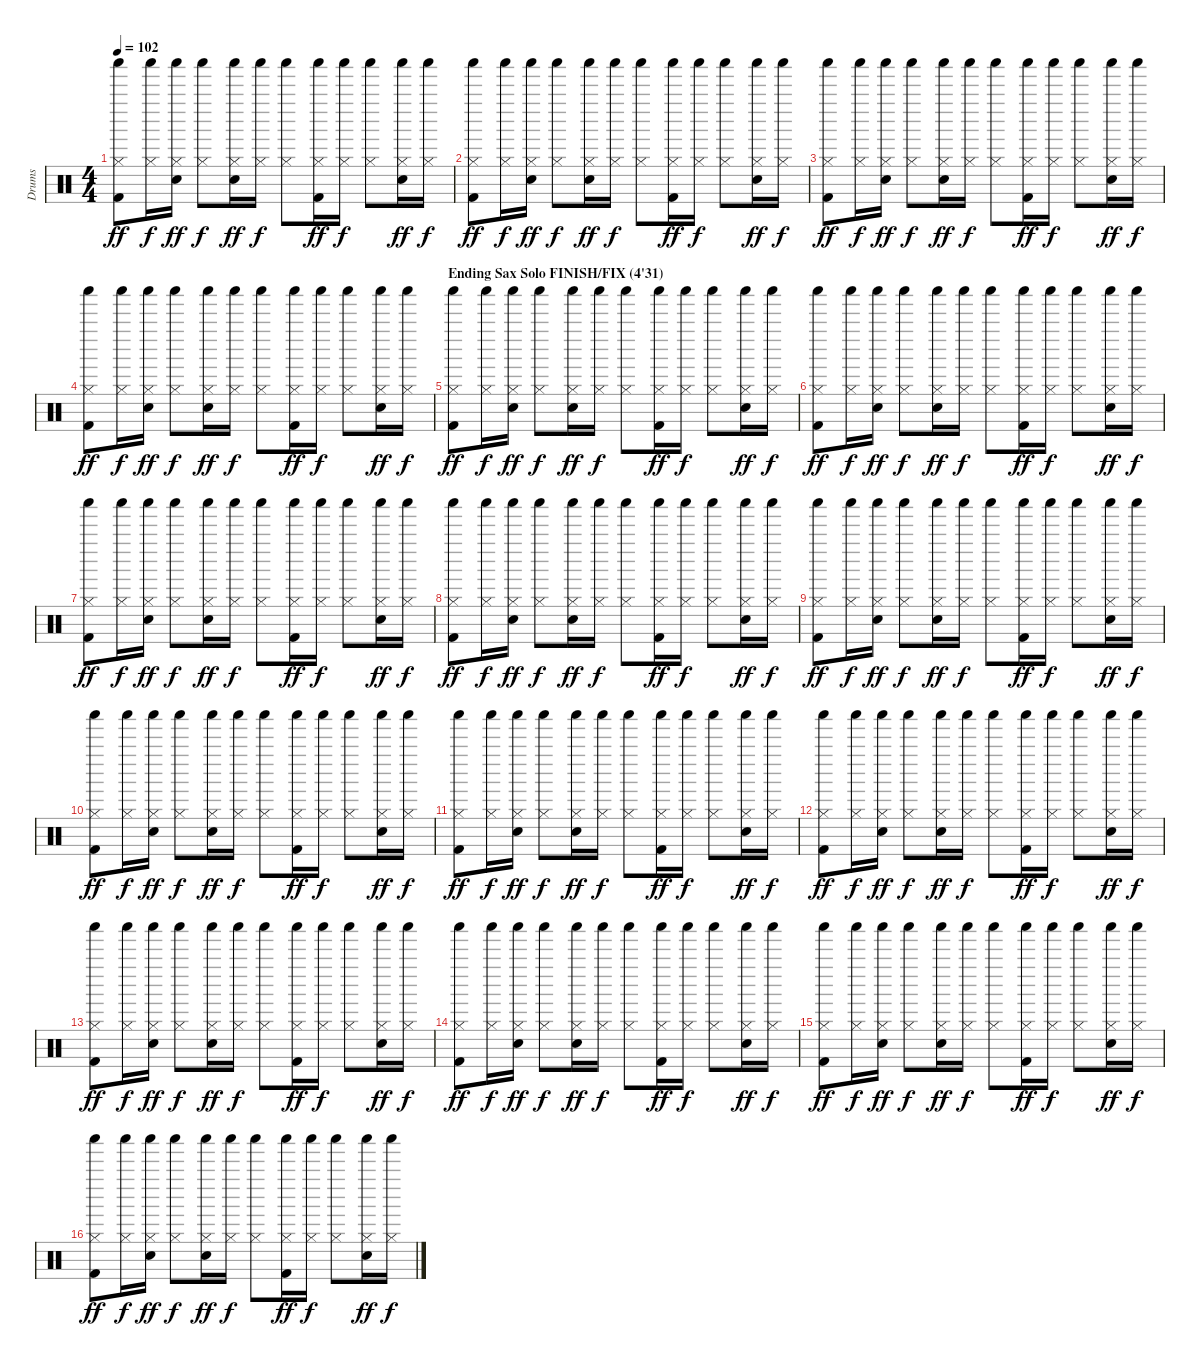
\track ("Drums" "Drums") {instrument percussion}
\staff {score}
\articulation defaults
\ts (4 4)
\tempo 102
\clef neutral
\ks c
("Hi-Hat (closed)" "Shaker (hit)" "Kick (hit) 2").8{dy ff} ("Hi-Hat (closed)" "Shaker (hit)").16{dy f} ("Hi-Hat (closed)" "Shaker (hit)" "Snare (hit) 2").16{dy ff} ("Hi-Hat (closed)" "Shaker (hit)").8{dy f} ("Hi-Hat (closed)" "Shaker (hit)" "Snare (hit) 2").16{dy ff} ("Hi-Hat (closed)" "Shaker (hit)").16{dy f} ("Hi-Hat (closed)" "Shaker (hit)").8 ("Hi-Hat (closed)" "Shaker (hit)" "Kick (hit) 2").16{dy ff} ("Hi-Hat (closed)" "Shaker (hit)").16{dy f} ("Hi-Hat (closed)" "Shaker (hit)").8 ("Hi-Hat (closed)" "Shaker (hit)" "Snare (hit) 2").16{dy ff} ("Hi-Hat (closed)" "Shaker (hit)").16{dy f} |
("Hi-Hat (closed)" "Shaker (hit)" "Kick (hit) 2").8{dy ff} ("Hi-Hat (closed)" "Shaker (hit)").16{dy f} ("Hi-Hat (closed)" "Shaker (hit)" "Snare (hit) 2").16{dy ff} ("Hi-Hat (closed)" "Shaker (hit)").8{dy f} ("Hi-Hat (closed)" "Shaker (hit)" "Snare (hit) 2").16{dy ff} ("Hi-Hat (closed)" "Shaker (hit)").16{dy f} ("Hi-Hat (closed)" "Shaker (hit)").8 ("Hi-Hat (closed)" "Shaker (hit)" "Kick (hit) 2").16{dy ff} ("Hi-Hat (closed)" "Shaker (hit)").16{dy f} ("Hi-Hat (closed)" "Shaker (hit)").8 ("Hi-Hat (closed)" "Shaker (hit)" "Snare (hit) 2").16{dy ff} ("Hi-Hat (closed)" "Shaker (hit)").16{dy f} |
("Hi-Hat (closed)" "Shaker (hit)" "Kick (hit) 2").8{dy ff} ("Hi-Hat (closed)" "Shaker (hit)").16{dy f} ("Hi-Hat (closed)" "Shaker (hit)" "Snare (hit) 2").16{dy ff} ("Hi-Hat (closed)" "Shaker (hit)").8{dy f} ("Hi-Hat (closed)" "Shaker (hit)" "Snare (hit) 2").16{dy ff} ("Hi-Hat (closed)" "Shaker (hit)").16{dy f} ("Hi-Hat (closed)" "Shaker (hit)").8 ("Hi-Hat (closed)" "Shaker (hit)" "Kick (hit) 2").16{dy ff} ("Hi-Hat (closed)" "Shaker (hit)").16{dy f} ("Hi-Hat (closed)" "Shaker (hit)").8 ("Hi-Hat (closed)" "Shaker (hit)" "Snare (hit) 2").16{dy ff} ("Hi-Hat (closed)" "Shaker (hit)").16{dy f} |
("Hi-Hat (closed)" "Shaker (hit)" "Kick (hit) 2").8{dy ff} ("Hi-Hat (closed)" "Shaker (hit)").16{dy f} ("Hi-Hat (closed)" "Shaker (hit)" "Snare (hit) 2").16{dy ff} ("Hi-Hat (closed)" "Shaker (hit)").8{dy f} ("Hi-Hat (closed)" "Shaker (hit)" "Snare (hit) 2").16{dy ff} ("Hi-Hat (closed)" "Shaker (hit)").16{dy f} ("Hi-Hat (closed)" "Shaker (hit)").8 ("Hi-Hat (closed)" "Shaker (hit)" "Kick (hit) 2").16{dy ff} ("Hi-Hat (closed)" "Shaker (hit)").16{dy f} ("Hi-Hat (closed)" "Shaker (hit)").8 ("Hi-Hat (closed)" "Shaker (hit)" "Snare (hit) 2").16{dy ff} ("Hi-Hat (closed)" "Shaker (hit)").16{dy f} |
\section ("" "Ending Sax Solo FINISH/FIX (4'31)")
("Hi-Hat (closed)" "Shaker (hit)" "Kick (hit) 2").8{dy ff} ("Hi-Hat (closed)" "Shaker (hit)").16{dy f} ("Hi-Hat (closed)" "Shaker (hit)" "Snare (hit) 2").16{dy ff} ("Hi-Hat (closed)" "Shaker (hit)").8{dy f} ("Hi-Hat (closed)" "Shaker (hit)" "Snare (hit) 2").16{dy ff} ("Hi-Hat (closed)" "Shaker (hit)").16{dy f} ("Hi-Hat (closed)" "Shaker (hit)").8 ("Hi-Hat (closed)" "Shaker (hit)" "Kick (hit) 2").16{dy ff} ("Hi-Hat (closed)" "Shaker (hit)").16{dy f} ("Hi-Hat (closed)" "Shaker (hit)").8 ("Hi-Hat (closed)" "Shaker (hit)" "Snare (hit) 2").16{dy ff} ("Hi-Hat (closed)" "Shaker (hit)").16{dy f} |
("Hi-Hat (closed)" "Shaker (hit)" "Kick (hit) 2").8{dy ff} ("Hi-Hat (closed)" "Shaker (hit)").16{dy f} ("Hi-Hat (closed)" "Shaker (hit)" "Snare (hit) 2").16{dy ff} ("Hi-Hat (closed)" "Shaker (hit)").8{dy f} ("Hi-Hat (closed)" "Shaker (hit)" "Snare (hit) 2").16{dy ff} ("Hi-Hat (closed)" "Shaker (hit)").16{dy f} ("Hi-Hat (closed)" "Shaker (hit)").8 ("Hi-Hat (closed)" "Shaker (hit)" "Kick (hit) 2").16{dy ff} ("Hi-Hat (closed)" "Shaker (hit)").16{dy f} ("Hi-Hat (closed)" "Shaker (hit)").8 ("Hi-Hat (closed)" "Shaker (hit)" "Snare (hit) 2").16{dy ff} ("Hi-Hat (closed)" "Shaker (hit)").16{dy f} |
("Hi-Hat (closed)" "Shaker (hit)" "Kick (hit) 2").8{dy ff} ("Hi-Hat (closed)" "Shaker (hit)").16{dy f} ("Hi-Hat (closed)" "Shaker (hit)" "Snare (hit) 2").16{dy ff} ("Hi-Hat (closed)" "Shaker (hit)").8{dy f} ("Hi-Hat (closed)" "Shaker (hit)" "Snare (hit) 2").16{dy ff} ("Hi-Hat (closed)" "Shaker (hit)").16{dy f} ("Hi-Hat (closed)" "Shaker (hit)").8 ("Hi-Hat (closed)" "Shaker (hit)" "Kick (hit) 2").16{dy ff} ("Hi-Hat (closed)" "Shaker (hit)").16{dy f} ("Hi-Hat (closed)" "Shaker (hit)").8 ("Hi-Hat (closed)" "Shaker (hit)" "Snare (hit) 2").16{dy ff} ("Hi-Hat (closed)" "Shaker (hit)").16{dy f} |
("Hi-Hat (closed)" "Shaker (hit)" "Kick (hit) 2").8{dy ff} ("Hi-Hat (closed)" "Shaker (hit)").16{dy f} ("Hi-Hat (closed)" "Shaker (hit)" "Snare (hit) 2").16{dy ff} ("Hi-Hat (closed)" "Shaker (hit)").8{dy f} ("Hi-Hat (closed)" "Shaker (hit)" "Snare (hit) 2").16{dy ff} ("Hi-Hat (closed)" "Shaker (hit)").16{dy f} ("Hi-Hat (closed)" "Shaker (hit)").8 ("Hi-Hat (closed)" "Shaker (hit)" "Kick (hit) 2").16{dy ff} ("Hi-Hat (closed)" "Shaker (hit)").16{dy f} ("Hi-Hat (closed)" "Shaker (hit)").8 ("Hi-Hat (closed)" "Shaker (hit)" "Snare (hit) 2").16{dy ff} ("Hi-Hat (closed)" "Shaker (hit)").16{dy f} |
("Hi-Hat (closed)" "Shaker (hit)" "Kick (hit) 2").8{dy ff} ("Hi-Hat (closed)" "Shaker (hit)").16{dy f} ("Hi-Hat (closed)" "Shaker (hit)" "Snare (hit) 2").16{dy ff} ("Hi-Hat (closed)" "Shaker (hit)").8{dy f} ("Hi-Hat (closed)" "Shaker (hit)" "Snare (hit) 2").16{dy ff} ("Hi-Hat (closed)" "Shaker (hit)").16{dy f} ("Hi-Hat (closed)" "Shaker (hit)").8 ("Hi-Hat (closed)" "Shaker (hit)" "Kick (hit) 2").16{dy ff} ("Hi-Hat (closed)" "Shaker (hit)").16{dy f} ("Hi-Hat (closed)" "Shaker (hit)").8 ("Hi-Hat (closed)" "Shaker (hit)" "Snare (hit) 2").16{dy ff} ("Hi-Hat (closed)" "Shaker (hit)").16{dy f} |
("Hi-Hat (closed)" "Shaker (hit)" "Kick (hit) 2").8{dy ff} ("Hi-Hat (closed)" "Shaker (hit)").16{dy f} ("Hi-Hat (closed)" "Shaker (hit)" "Snare (hit) 2").16{dy ff} ("Hi-Hat (closed)" "Shaker (hit)").8{dy f} ("Hi-Hat (closed)" "Shaker (hit)" "Snare (hit) 2").16{dy ff} ("Hi-Hat (closed)" "Shaker (hit)").16{dy f} ("Hi-Hat (closed)" "Shaker (hit)").8 ("Hi-Hat (closed)" "Shaker (hit)" "Kick (hit) 2").16{dy ff} ("Hi-Hat (closed)" "Shaker (hit)").16{dy f} ("Hi-Hat (closed)" "Shaker (hit)").8 ("Hi-Hat (closed)" "Shaker (hit)" "Snare (hit) 2").16{dy ff} ("Hi-Hat (closed)" "Shaker (hit)").16{dy f} |
("Hi-Hat (closed)" "Shaker (hit)" "Kick (hit) 2").8{dy ff} ("Hi-Hat (closed)" "Shaker (hit)").16{dy f} ("Hi-Hat (closed)" "Shaker (hit)" "Snare (hit) 2").16{dy ff} ("Hi-Hat (closed)" "Shaker (hit)").8{dy f} ("Hi-Hat (closed)" "Shaker (hit)" "Snare (hit) 2").16{dy ff} ("Hi-Hat (closed)" "Shaker (hit)").16{dy f} ("Hi-Hat (closed)" "Shaker (hit)").8 ("Hi-Hat (closed)" "Shaker (hit)" "Kick (hit) 2").16{dy ff} ("Hi-Hat (closed)" "Shaker (hit)").16{dy f} ("Hi-Hat (closed)" "Shaker (hit)").8 ("Hi-Hat (closed)" "Shaker (hit)" "Snare (hit) 2").16{dy ff} ("Hi-Hat (closed)" "Shaker (hit)").16{dy f} |
("Hi-Hat (closed)" "Shaker (hit)" "Kick (hit) 2").8{dy ff} ("Hi-Hat (closed)" "Shaker (hit)").16{dy f} ("Hi-Hat (closed)" "Shaker (hit)" "Snare (hit) 2").16{dy ff} ("Hi-Hat (closed)" "Shaker (hit)").8{dy f} ("Hi-Hat (closed)" "Shaker (hit)" "Snare (hit) 2").16{dy ff} ("Hi-Hat (closed)" "Shaker (hit)").16{dy f} ("Hi-Hat (closed)" "Shaker (hit)").8 ("Hi-Hat (closed)" "Shaker (hit)" "Kick (hit) 2").16{dy ff} ("Hi-Hat (closed)" "Shaker (hit)").16{dy f} ("Hi-Hat (closed)" "Shaker (hit)").8 ("Hi-Hat (closed)" "Shaker (hit)" "Snare (hit) 2").16{dy ff} ("Hi-Hat (closed)" "Shaker (hit)").16{dy f} |
("Hi-Hat (closed)" "Shaker (hit)" "Kick (hit) 2").8{dy ff} ("Hi-Hat (closed)" "Shaker (hit)").16{dy f} ("Hi-Hat (closed)" "Shaker (hit)" "Snare (hit) 2").16{dy ff} ("Hi-Hat (closed)" "Shaker (hit)").8{dy f} ("Hi-Hat (closed)" "Shaker (hit)" "Snare (hit) 2").16{dy ff} ("Hi-Hat (closed)" "Shaker (hit)").16{dy f} ("Hi-Hat (closed)" "Shaker (hit)").8 ("Hi-Hat (closed)" "Shaker (hit)" "Kick (hit) 2").16{dy ff} ("Hi-Hat (closed)" "Shaker (hit)").16{dy f} ("Hi-Hat (closed)" "Shaker (hit)").8 ("Hi-Hat (closed)" "Shaker (hit)" "Snare (hit) 2").16{dy ff} ("Hi-Hat (closed)" "Shaker (hit)").16{dy f} |
("Hi-Hat (closed)" "Shaker (hit)" "Kick (hit) 2").8{dy ff} ("Hi-Hat (closed)" "Shaker (hit)").16{dy f} ("Hi-Hat (closed)" "Shaker (hit)" "Snare (hit) 2").16{dy ff} ("Hi-Hat (closed)" "Shaker (hit)").8{dy f} ("Hi-Hat (closed)" "Shaker (hit)" "Snare (hit) 2").16{dy ff} ("Hi-Hat (closed)" "Shaker (hit)").16{dy f} ("Hi-Hat (closed)" "Shaker (hit)").8 ("Hi-Hat (closed)" "Shaker (hit)" "Kick (hit) 2").16{dy ff} ("Hi-Hat (closed)" "Shaker (hit)").16{dy f} ("Hi-Hat (closed)" "Shaker (hit)").8 ("Hi-Hat (closed)" "Shaker (hit)" "Snare (hit) 2").16{dy ff} ("Hi-Hat (closed)" "Shaker (hit)").16{dy f} |
("Hi-Hat (closed)" "Shaker (hit)" "Kick (hit) 2").8{dy ff} ("Hi-Hat (closed)" "Shaker (hit)").16{dy f} ("Hi-Hat (closed)" "Shaker (hit)" "Snare (hit) 2").16{dy ff} ("Hi-Hat (closed)" "Shaker (hit)").8{dy f} ("Hi-Hat (closed)" "Shaker (hit)" "Snare (hit) 2").16{dy ff} ("Hi-Hat (closed)" "Shaker (hit)").16{dy f} ("Hi-Hat (closed)" "Shaker (hit)").8 ("Hi-Hat (closed)" "Shaker (hit)" "Kick (hit) 2").16{dy ff} ("Hi-Hat (closed)" "Shaker (hit)").16{dy f} ("Hi-Hat (closed)" "Shaker (hit)").8 ("Hi-Hat (closed)" "Shaker (hit)" "Snare (hit) 2").16{dy ff} ("Hi-Hat (closed)" "Shaker (hit)").16{dy f} |
("Hi-Hat (closed)" "Shaker (hit)" "Kick (hit) 2").8{dy ff} ("Hi-Hat (closed)" "Shaker (hit)").16{dy f} ("Hi-Hat (closed)" "Shaker (hit)" "Snare (hit) 2").16{dy ff} ("Hi-Hat (closed)" "Shaker (hit)").8{dy f} ("Hi-Hat (closed)" "Shaker (hit)" "Snare (hit) 2").16{dy ff} ("Hi-Hat (closed)" "Shaker (hit)").16{dy f} ("Hi-Hat (closed)" "Shaker (hit)").8 ("Hi-Hat (closed)" "Shaker (hit)" "Kick (hit) 2").16{dy ff} ("Hi-Hat (closed)" "Shaker (hit)").16{dy f} ("Hi-Hat (closed)" "Shaker (hit)").8 ("Hi-Hat (closed)" "Shaker (hit)" "Snare (hit) 2").16{dy ff} ("Hi-Hat (closed)" "Shaker (hit)").16{dy f}
